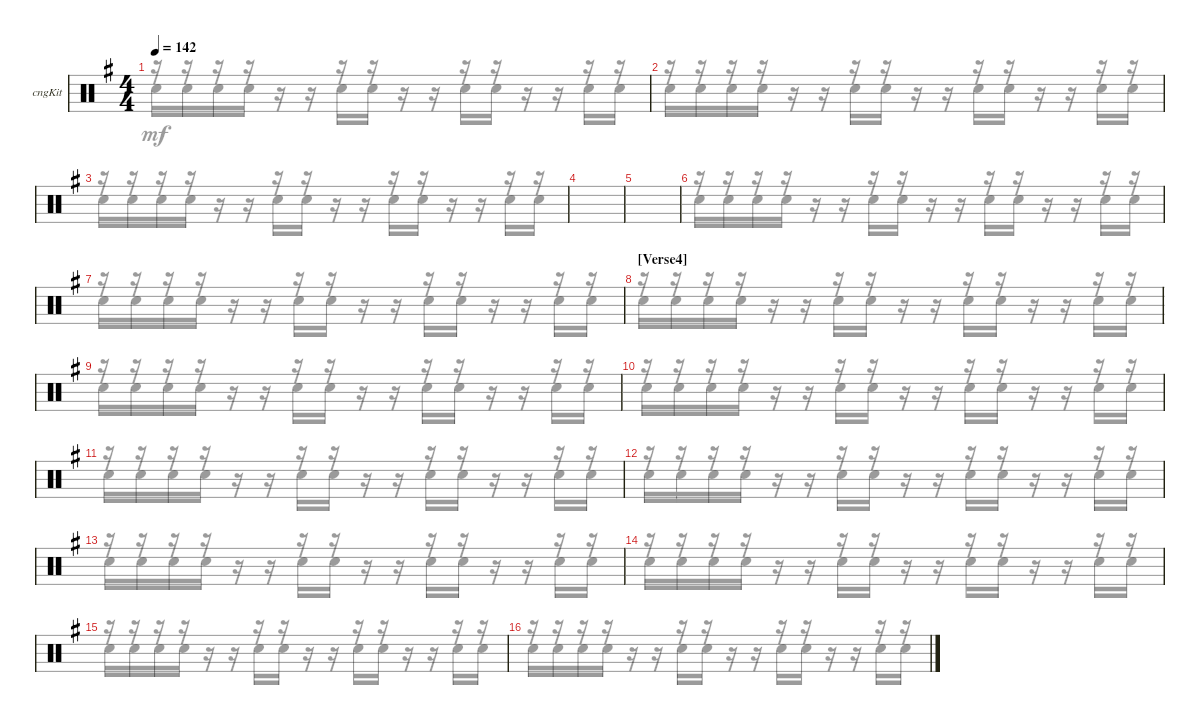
\bracketExtendMode groupsimilarinstruments
\firstSystemTrackNameOrientation horizontal
\otherSystemsTrackNameOrientation horizontal
\track ("Congas" "cngKit") {instrument percussion}
\staff {score}
\articulation defaults
\voice
\ts (4 4)
\tempo 142
\clef neutral
\ks eminor
|
|
|
|
|
|
|
\section ("" "[Verse4] ")
|
|
|
|
|
|
|
|
\voice
\clef neutral
\ks eminor
r.16{dy mf} r.16 r.16 r.16 r.16 r.16 r.16 r.16 r.16 r.16 r.16 r.16 r.16 r.16 r.16 r.16 |
r.16 r.16 r.16 r.16 r.16 r.16 r.16 r.16 r.16 r.16 r.16 r.16 r.16 r.16 r.16 r.16 |
r.16 r.16 r.16 r.16 r.16 r.16 r.16 r.16 r.16 r.16 r.16 r.16 r.16 r.16 r.16 r.16 |
|
|
r.16 r.16 r.16 r.16 r.16 r.16 r.16 r.16 r.16 r.16 r.16 r.16 r.16 r.16 r.16 r.16 |
r.16 r.16 r.16 r.16 r.16 r.16 r.16 r.16 r.16 r.16 r.16 r.16 r.16 r.16 r.16 r.16 |
r.16 r.16 r.16 r.16 r.16 r.16 r.16 r.16 r.16 r.16 r.16 r.16 r.16 r.16 r.16 r.16 |
r.16 r.16 r.16 r.16 r.16 r.16 r.16 r.16 r.16 r.16 r.16 r.16 r.16 r.16 r.16 r.16 |
r.16 r.16 r.16 r.16 r.16 r.16 r.16 r.16 r.16 r.16 r.16 r.16 r.16 r.16 r.16 r.16 |
r.16 r.16 r.16 r.16 r.16 r.16 r.16 r.16 r.16 r.16 r.16 r.16 r.16 r.16 r.16 r.16 |
r.16 r.16 r.16 r.16 r.16 r.16 r.16 r.16 r.16 r.16 r.16 r.16 r.16 r.16 r.16 r.16 |
r.16 r.16 r.16 r.16 r.16 r.16 r.16 r.16 r.16 r.16 r.16 r.16 r.16 r.16 r.16 r.16 |
r.16 r.16 r.16 r.16 r.16 r.16 r.16 r.16 r.16 r.16 r.16 r.16 r.16 r.16 r.16 r.16 |
r.16 r.16 r.16 r.16 r.16 r.16 r.16 r.16 r.16 r.16 r.16 r.16 r.16 r.16 r.16 r.16 |
r.16 r.16 r.16 r.16 r.16 r.16 r.16 r.16 r.16 r.16 r.16 r.16 r.16 r.16 r.16 r.16
\voice
\clef neutral
\ottava regular
\simile none
\ks eminor "Snare (hit) 2".16{dy mf} "Snare (hit) 2".16 "Snare (hit) 2".16 "Snare (hit) 2".16
r.16 r.16 "Snare (hit) 2".16 "Snare (hit) 2".16 r.16 r.16 "Snare (hit) 2".16 "Snare (hit) 2".16 r.16 r.16 "Snare (hit) 2".16 "Snare (hit) 2".16 |
"Snare (hit) 2".16 "Snare (hit) 2".16 "Snare (hit) 2".16 "Snare (hit) 2".16 r.16 r.16 "Snare (hit) 2".16 "Snare (hit) 2".16 r.16 r.16 "Snare (hit) 2".16 "Snare (hit) 2".16 r.16 r.16 "Snare (hit) 2".16 "Snare (hit) 2".16 |
"Snare (hit) 2".16 "Snare (hit) 2".16 "Snare (hit) 2".16 "Snare (hit) 2".16 r.16 r.16 "Snare (hit) 2".16 "Snare (hit) 2".16 r.16 r.16 "Snare (hit) 2".16 "Snare (hit) 2".16 r.16 r.16 "Snare (hit) 2".16 "Snare (hit) 2".16 |
|
|
"Snare (hit) 2".16 "Snare (hit) 2".16 "Snare (hit) 2".16 "Snare (hit) 2".16 r.16 r.16 "Snare (hit) 2".16 "Snare (hit) 2".16 r.16 r.16 "Snare (hit) 2".16 "Snare (hit) 2".16 r.16 r.16 "Snare (hit) 2".16 "Snare (hit) 2".16 |
"Snare (hit) 2".16 "Snare (hit) 2".16 "Snare (hit) 2".16 "Snare (hit) 2".16 r.16 r.16 "Snare (hit) 2".16 "Snare (hit) 2".16 r.16 r.16 "Snare (hit) 2".16 "Snare (hit) 2".16 r.16 r.16 "Snare (hit) 2".16 "Snare (hit) 2".16 |
"Snare (hit) 2".16 "Snare (hit) 2".16 "Snare (hit) 2".16 "Snare (hit) 2".16 r.16 r.16 "Snare (hit) 2".16 "Snare (hit) 2".16 r.16 r.16 "Snare (hit) 2".16 "Snare (hit) 2".16 r.16 r.16 "Snare (hit) 2".16 "Snare (hit) 2".16 |
"Snare (hit) 2".16 "Snare (hit) 2".16 "Snare (hit) 2".16 "Snare (hit) 2".16 r.16 r.16 "Snare (hit) 2".16 "Snare (hit) 2".16 r.16 r.16 "Snare (hit) 2".16 "Snare (hit) 2".16 r.16 r.16 "Snare (hit) 2".16 "Snare (hit) 2".16 |
"Snare (hit) 2".16 "Snare (hit) 2".16 "Snare (hit) 2".16 "Snare (hit) 2".16 r.16 r.16 "Snare (hit) 2".16 "Snare (hit) 2".16 r.16 r.16 "Snare (hit) 2".16 "Snare (hit) 2".16 r.16 r.16 "Snare (hit) 2".16 "Snare (hit) 2".16 |
"Snare (hit) 2".16 "Snare (hit) 2".16 "Snare (hit) 2".16 "Snare (hit) 2".16 r.16 r.16 "Snare (hit) 2".16 "Snare (hit) 2".16 r.16 r.16 "Snare (hit) 2".16 "Snare (hit) 2".16 r.16 r.16 "Snare (hit) 2".16 "Snare (hit) 2".16 |
"Snare (hit) 2".16 "Snare (hit) 2".16 "Snare (hit) 2".16 "Snare (hit) 2".16 r.16 r.16 "Snare (hit) 2".16 "Snare (hit) 2".16 r.16 r.16 "Snare (hit) 2".16 "Snare (hit) 2".16 r.16 r.16 "Snare (hit) 2".16 "Snare (hit) 2".16 |
"Snare (hit) 2".16 "Snare (hit) 2".16 "Snare (hit) 2".16 "Snare (hit) 2".16 r.16 r.16 "Snare (hit) 2".16 "Snare (hit) 2".16 r.16 r.16 "Snare (hit) 2".16 "Snare (hit) 2".16 r.16 r.16 "Snare (hit) 2".16 "Snare (hit) 2".16 |
"Snare (hit) 2".16 "Snare (hit) 2".16 "Snare (hit) 2".16 "Snare (hit) 2".16 r.16 r.16 "Snare (hit) 2".16 "Snare (hit) 2".16 r.16 r.16 "Snare (hit) 2".16 "Snare (hit) 2".16 r.16 r.16 "Snare (hit) 2".16 "Snare (hit) 2".16 |
"Snare (hit) 2".16 "Snare (hit) 2".16 "Snare (hit) 2".16 "Snare (hit) 2".16 r.16 r.16 "Snare (hit) 2".16 "Snare (hit) 2".16 r.16 r.16 "Snare (hit) 2".16 "Snare (hit) 2".16 r.16 r.16 "Snare (hit) 2".16 "Snare (hit) 2".16 |
"Snare (hit) 2".16 "Snare (hit) 2".16 "Snare (hit) 2".16 "Snare (hit) 2".16 r.16 r.16 "Snare (hit) 2".16 "Snare (hit) 2".16 r.16 r.16 "Snare (hit) 2".16 "Snare (hit) 2".16 r.16 r.16 "Snare (hit) 2".16 "Snare (hit) 2".16
